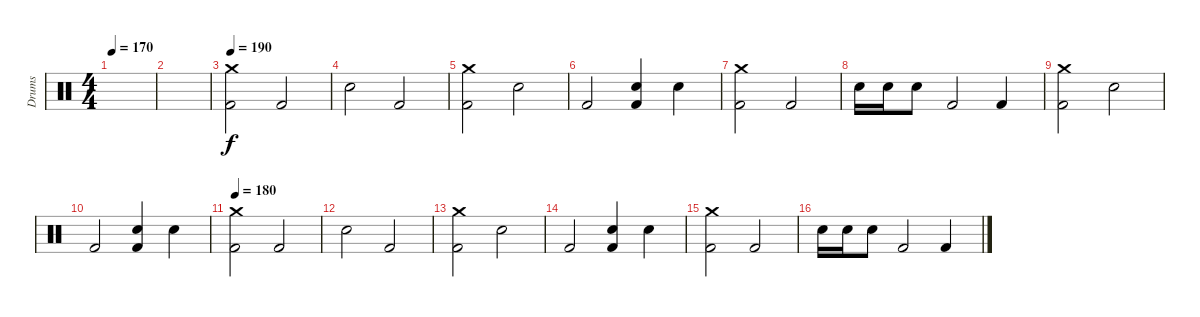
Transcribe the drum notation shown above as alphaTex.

\track ("Drums" "Drums") {instrument percussion}
\staff {score}
\articulation defaults
\ts (4 4)
\tempo 170
\clef neutral
\ks c
|
|
\tempo 190
("Crash medium (hit)" "Kick (hit) 2").2 "Kick (hit) 2".2 |
"Snare (hit) 2".2 "Kick (hit) 2".2 |
("Crash medium (hit)" "Kick (hit) 2").2 "Snare (hit) 2".2 |
"Kick (hit) 2".2 ("Snare (hit) 2" "Kick (hit) 2").4 "Snare (hit) 2".4 |
("Crash medium (hit)" "Kick (hit) 2").2 "Kick (hit) 2".2 |
"Snare (hit) 2".16 "Snare (hit) 2".16 "Snare (hit) 2".8 "Kick (hit) 2".2 "Kick (hit) 2".4 |
("Crash medium (hit)" "Kick (hit) 2").2 "Snare (hit) 2".2 |
"Kick (hit) 2".2 ("Snare (hit) 2" "Kick (hit) 2").4 "Snare (hit) 2".4 |
\tempo 180
("Crash medium (hit)" "Kick (hit) 2").2 "Kick (hit) 2".2 |
"Snare (hit) 2".2 "Kick (hit) 2".2 |
("Crash medium (hit)" "Kick (hit) 2").2 "Snare (hit) 2".2 |
"Kick (hit) 2".2 ("Snare (hit) 2" "Kick (hit) 2").4 "Snare (hit) 2".4 |
("Crash medium (hit)" "Kick (hit) 2").2 "Kick (hit) 2".2 |
"Snare (hit) 2".16 "Snare (hit) 2".16 "Snare (hit) 2".8 "Kick (hit) 2".2 "Kick (hit) 2".4
